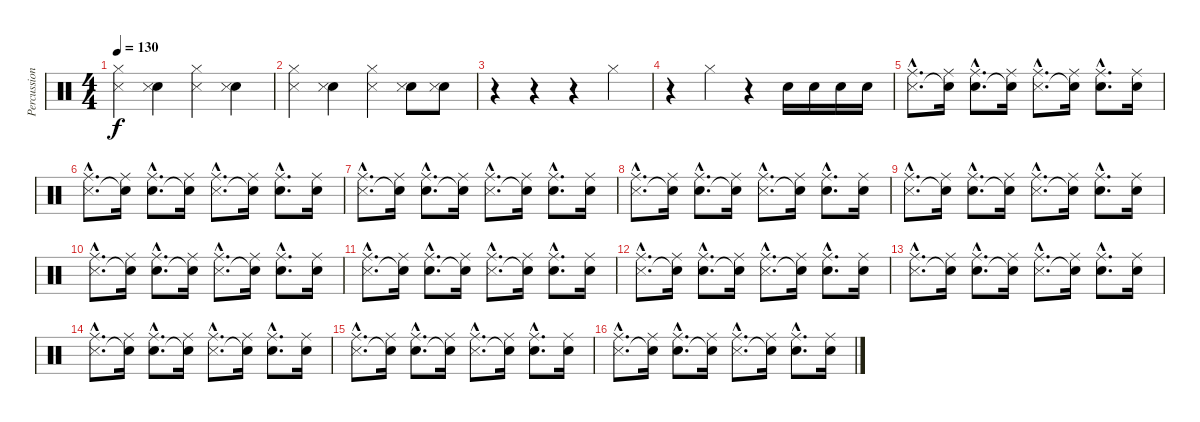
\track ("Percussion" "Percussion") {instrument percussion}
\staff {score}
\articulation defaults
\ts (4 4)
\tempo 130
\clef neutral
\ks c
("Hi-Hat (closed)" "Snare (side stick) 3").4{dy f} ("Electric Snare (hit)" "Snare (side stick) 3").4 ("Hi-Hat (closed)" "Snare (side stick) 3").4 ("Electric Snare (hit)" "Snare (side stick) 3").4 |
("Hi-Hat (closed)" "Snare (side stick) 3").4 ("Electric Snare (hit)" "Snare (side stick) 3").4 ("Hi-Hat (closed)" "Snare (side stick) 3").4 ("Electric Snare (hit)" "Snare (side stick) 3").8 ("Electric Snare (hit)" "Snare (side stick) 3").8 |
r.4 r.4 r.4 "Hi-Hat (closed)".4 |
r.4 "Hi-Hat (closed)".4 r.4 "Snare (hit) 2".16 "Electric Snare (hit)".16 "Electric Snare (hit)".16 "Electric Snare (hit)".16 |
("Ride (middle)"{hac} "Snare (side stick) 3"{hac}).8{d} ("Ride (middle)" "Snare (hit)"{t}).16 ("Ride (middle)"{hac} "Electric Snare (hit)"{hac}).8{d} ("Ride (middle)" "Snare (hit)"{t}).16 ("Ride (middle)"{hac} "Snare (side stick) 3"{hac}).8{d} ("Ride (middle)" "Snare (hit)"{t}).16 ("Ride (middle)"{hac} "Electric Snare (hit)"{hac}).8{d} ("Ride (middle)" "Electric Snare (hit)").16 |
("Ride (middle)"{hac} "Snare (side stick) 3"{hac}).8{d} ("Ride (middle)" "Snare (hit)"{t}).16 ("Ride (middle)"{hac} "Electric Snare (hit)"{hac}).8{d} ("Ride (middle)" "Snare (hit)"{t}).16 ("Ride (middle)"{hac} "Snare (side stick) 3"{hac}).8{d} ("Ride (middle)" "Snare (hit)"{t}).16 ("Ride (middle)"{hac} "Electric Snare (hit)"{hac}).8{d} ("Ride (middle)" "Electric Snare (hit)").16 |
("Ride (middle)"{hac} "Snare (side stick) 3"{hac}).8{d} ("Ride (middle)" "Snare (hit)"{t}).16 ("Ride (middle)"{hac} "Electric Snare (hit)"{hac}).8{d} ("Ride (middle)" "Snare (hit)"{t}).16 ("Ride (middle)"{hac} "Snare (side stick) 3"{hac}).8{d} ("Ride (middle)" "Snare (hit)"{t}).16 ("Ride (middle)"{hac} "Electric Snare (hit)"{hac}).8{d} ("Ride (middle)" "Electric Snare (hit)").16 |
("Ride (middle)"{hac} "Snare (side stick) 3"{hac}).8{d} ("Ride (middle)" "Snare (hit)"{t}).16 ("Ride (middle)"{hac} "Electric Snare (hit)"{hac}).8{d} ("Ride (middle)" "Snare (hit)"{t}).16 ("Ride (middle)"{hac} "Snare (side stick) 3"{hac}).8{d} ("Ride (middle)" "Snare (hit)"{t}).16 ("Ride (middle)"{hac} "Electric Snare (hit)"{hac}).8{d} ("Ride (middle)" "Electric Snare (hit)").16 |
("Ride (middle)"{hac} "Snare (side stick) 3"{hac}).8{d} ("Ride (middle)" "Snare (hit)"{t}).16 ("Ride (middle)"{hac} "Electric Snare (hit)"{hac}).8{d} ("Ride (middle)" "Snare (hit)"{t}).16 ("Ride (middle)"{hac} "Snare (side stick) 3"{hac}).8{d} ("Ride (middle)" "Snare (hit)"{t}).16 ("Ride (middle)"{hac} "Electric Snare (hit)"{hac}).8{d} ("Ride (middle)" "Electric Snare (hit)").16 |
("Ride (middle)"{hac} "Snare (side stick) 3"{hac}).8{d} ("Ride (middle)" "Snare (hit)"{t}).16 ("Ride (middle)"{hac} "Electric Snare (hit)"{hac}).8{d} ("Ride (middle)" "Snare (hit)"{t}).16 ("Ride (middle)"{hac} "Snare (side stick) 3"{hac}).8{d} ("Ride (middle)" "Snare (hit)"{t}).16 ("Ride (middle)"{hac} "Electric Snare (hit)"{hac}).8{d} ("Ride (middle)" "Electric Snare (hit)").16 |
("Ride (middle)"{hac} "Snare (side stick) 3"{hac}).8{d} ("Ride (middle)" "Snare (hit)"{t}).16 ("Ride (middle)"{hac} "Electric Snare (hit)"{hac}).8{d} ("Ride (middle)" "Snare (hit)"{t}).16 ("Ride (middle)"{hac} "Snare (side stick) 3"{hac}).8{d} ("Ride (middle)" "Snare (hit)"{t}).16 ("Ride (middle)"{hac} "Electric Snare (hit)"{hac}).8{d} ("Ride (middle)" "Electric Snare (hit)").16 |
("Ride (middle)"{hac} "Snare (side stick) 3"{hac}).8{d} ("Ride (middle)" "Snare (hit)"{t}).16 ("Ride (middle)"{hac} "Electric Snare (hit)"{hac}).8{d} ("Ride (middle)" "Snare (hit)"{t}).16 ("Ride (middle)"{hac} "Snare (side stick) 3"{hac}).8{d} ("Ride (middle)" "Snare (hit)"{t}).16 ("Ride (middle)"{hac} "Electric Snare (hit)"{hac}).8{d} ("Ride (middle)" "Electric Snare (hit)").16 |
("Ride (middle)"{hac} "Snare (side stick) 3"{hac}).8{d} ("Ride (middle)" "Snare (hit)"{t}).16 ("Ride (middle)"{hac} "Electric Snare (hit)"{hac}).8{d} ("Ride (middle)" "Snare (hit)"{t}).16 ("Ride (middle)"{hac} "Snare (side stick) 3"{hac}).8{d} ("Ride (middle)" "Snare (hit)"{t}).16 ("Ride (middle)"{hac} "Electric Snare (hit)"{hac}).8{d} ("Ride (middle)" "Electric Snare (hit)").16 |
("Ride (middle)"{hac} "Snare (side stick) 3"{hac}).8{d} ("Ride (middle)" "Snare (hit)"{t}).16 ("Ride (middle)"{hac} "Electric Snare (hit)"{hac}).8{d} ("Ride (middle)" "Snare (hit)"{t}).16 ("Ride (middle)"{hac} "Snare (side stick) 3"{hac}).8{d} ("Ride (middle)" "Snare (hit)"{t}).16 ("Ride (middle)"{hac} "Electric Snare (hit)"{hac}).8{d} ("Ride (middle)" "Electric Snare (hit)").16 |
("Ride (middle)"{hac} "Snare (side stick) 3"{hac}).8{d} ("Ride (middle)" "Snare (hit)"{t}).16 ("Ride (middle)"{hac} "Electric Snare (hit)"{hac}).8{d} ("Ride (middle)" "Snare (hit)"{t}).16 ("Ride (middle)"{hac} "Snare (side stick) 3"{hac}).8{d} ("Ride (middle)" "Snare (hit)"{t}).16 ("Ride (middle)"{hac} "Electric Snare (hit)"{hac}).8{d} ("Ride (middle)" "Electric Snare (hit)").16 |
("Ride (middle)"{hac} "Snare (side stick) 3"{hac}).8{d} ("Ride (middle)" "Snare (hit)"{t}).16 ("Ride (middle)"{hac} "Electric Snare (hit)"{hac}).8{d} ("Ride (middle)" "Snare (hit)"{t}).16 ("Ride (middle)"{hac} "Snare (side stick) 3"{hac}).8{d} ("Ride (middle)" "Snare (hit)"{t}).16 ("Ride (middle)"{hac} "Electric Snare (hit)"{hac}).8{d} ("Ride (middle)" "Electric Snare (hit)").16
